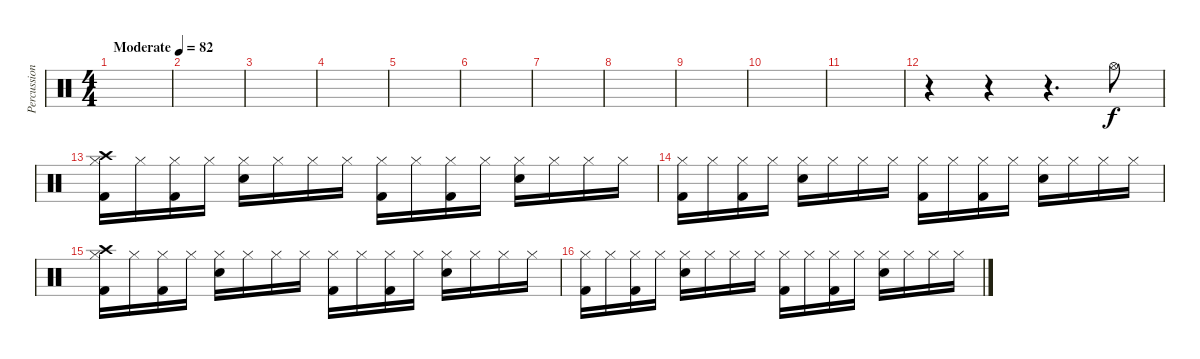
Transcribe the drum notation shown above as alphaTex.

\track ("Percussions" "Percussion") {instrument percussion}
\staff {score}
\articulation defaults
\ts (4 4)
\tempo (82 "Moderate")
\clef neutral
\ks c
|
|
|
|
|
|
|
|
|
|
|
r.4 r.4 r.4{d} "Hi-Hat (open)".8 |
("Crash high (hit)" "Hi-Hat (closed)" "Kick (hit) 2").16 "Hi-Hat (closed)".16 ("Hi-Hat (closed)" "Kick (hit) 2").16 "Hi-Hat (closed)".16 ("Hi-Hat (closed)" "Electric Snare (hit)").16 "Hi-Hat (closed)".16 "Hi-Hat (closed)".16 "Hi-Hat (closed)".16 ("Hi-Hat (closed)" "Kick (hit) 2").16 "Hi-Hat (closed)".16 ("Hi-Hat (closed)" "Kick (hit) 2").16 "Hi-Hat (closed)".16 ("Hi-Hat (closed)" "Electric Snare (hit)").16 "Hi-Hat (closed)".16 "Hi-Hat (closed)".16 "Hi-Hat (closed)".16 |
("Hi-Hat (closed)" "Kick (hit) 2").16 "Hi-Hat (closed)".16 ("Hi-Hat (closed)" "Kick (hit) 2").16 "Hi-Hat (closed)".16 ("Hi-Hat (closed)" "Electric Snare (hit)").16 "Hi-Hat (closed)".16 "Hi-Hat (closed)".16 "Hi-Hat (closed)".16 ("Hi-Hat (closed)" "Kick (hit) 2").16 "Hi-Hat (closed)".16 ("Hi-Hat (closed)" "Kick (hit) 2").16 "Hi-Hat (closed)".16 ("Hi-Hat (closed)" "Electric Snare (hit)").16 "Hi-Hat (closed)".16 "Hi-Hat (closed)".16 "Hi-Hat (closed)".16 |
("Crash high (hit)" "Hi-Hat (closed)" "Kick (hit) 2").16 "Hi-Hat (closed)".16 ("Hi-Hat (closed)" "Kick (hit) 2").16 "Hi-Hat (closed)".16 ("Hi-Hat (closed)" "Electric Snare (hit)").16 "Hi-Hat (closed)".16 "Hi-Hat (closed)".16 "Hi-Hat (closed)".16 ("Hi-Hat (closed)" "Kick (hit) 2").16 "Hi-Hat (closed)".16 ("Hi-Hat (closed)" "Kick (hit) 2").16 "Hi-Hat (closed)".16 ("Hi-Hat (closed)" "Electric Snare (hit)").16 "Hi-Hat (closed)".16 "Hi-Hat (closed)".16 "Hi-Hat (closed)".16 |
("Hi-Hat (closed)" "Kick (hit) 2").16 "Hi-Hat (closed)".16 ("Hi-Hat (closed)" "Kick (hit) 2").16 "Hi-Hat (closed)".16 ("Hi-Hat (closed)" "Electric Snare (hit)").16 "Hi-Hat (closed)".16 "Hi-Hat (closed)".16 "Hi-Hat (closed)".16 ("Hi-Hat (closed)" "Kick (hit) 2").16 "Hi-Hat (closed)".16 ("Hi-Hat (closed)" "Kick (hit) 2").16 "Hi-Hat (closed)".16 ("Hi-Hat (closed)" "Electric Snare (hit)").16 "Hi-Hat (closed)".16 "Hi-Hat (closed)".16 "Hi-Hat (closed)".16
